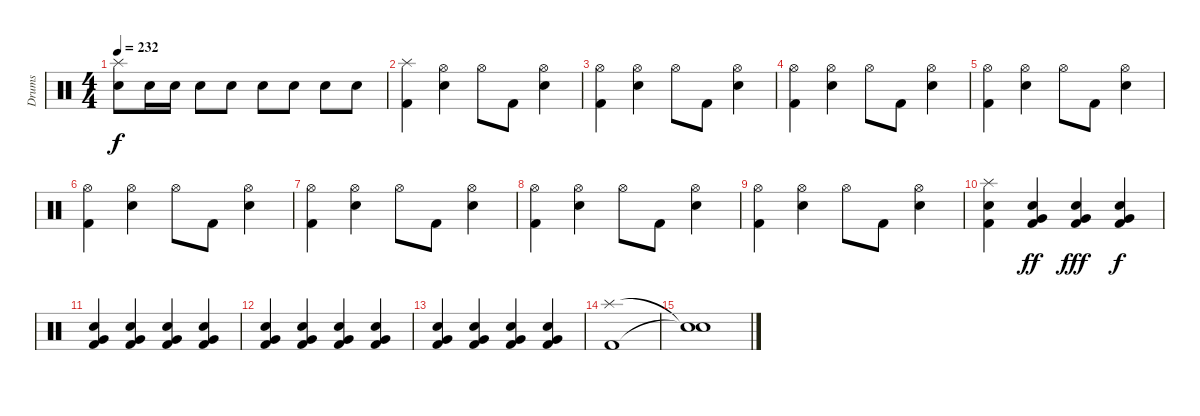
\track ("Drums" "Drums") {instrument percussion}
\staff {score}
\articulation defaults
\ts (4 4)
\tempo 232
\clef neutral
\ks c
("Splash (hit)" "Electric Snare (hit)").8{dy f} "Electric Snare (hit)".16 "Electric Snare (hit)".16 "Electric Snare (hit)".8 "Electric Snare (hit)".8 "Electric Snare (hit)".8 "Electric Snare (hit)".8 "Electric Snare (hit)".8 "Electric Snare (hit)".8 |
("Splash (hit)" "Kick (hit) 2").4 ("Hi-Hat (open)" "Electric Snare (hit)").4 "Hi-Hat (open)".8 "Kick (hit) 2".8 ("Hi-Hat (open)" "Electric Snare (hit)").4 |
("Hi-Hat (open)" "Kick (hit) 2").4 ("Hi-Hat (open)" "Electric Snare (hit)").4 "Hi-Hat (open)".8 "Kick (hit) 2".8 ("Hi-Hat (open)" "Electric Snare (hit)").4 |
("Hi-Hat (open)" "Kick (hit) 2").4 ("Hi-Hat (open)" "Electric Snare (hit)").4 "Hi-Hat (open)".8 "Kick (hit) 2".8 ("Hi-Hat (open)" "Electric Snare (hit)").4 |
("Hi-Hat (open)" "Kick (hit) 2").4 ("Hi-Hat (open)" "Electric Snare (hit)").4 "Hi-Hat (open)".8 "Kick (hit) 2".8 ("Hi-Hat (open)" "Electric Snare (hit)").4 |
("Hi-Hat (open)" "Kick (hit) 2").4 ("Hi-Hat (open)" "Electric Snare (hit)").4 "Hi-Hat (open)".8 "Kick (hit) 2".8 ("Hi-Hat (open)" "Electric Snare (hit)").4 |
("Hi-Hat (open)" "Kick (hit) 2").4 ("Hi-Hat (open)" "Electric Snare (hit)").4 "Hi-Hat (open)".8 "Kick (hit) 2".8 ("Hi-Hat (open)" "Electric Snare (hit)").4 |
("Hi-Hat (open)" "Kick (hit) 2").4 ("Hi-Hat (open)" "Electric Snare (hit)").4 "Hi-Hat (open)".8 "Kick (hit) 2".8 ("Hi-Hat (open)" "Electric Snare (hit)").4 |
("Hi-Hat (open)" "Kick (hit) 2").4 ("Hi-Hat (open)" "Electric Snare (hit)").4 "Hi-Hat (open)".8 "Kick (hit) 2".8 ("Hi-Hat (open)" "Electric Snare (hit)").4 |
("Splash (hit)" "Electric Snare (hit)" "Kick (hit) 2").4 ("Very Low Tom (hit)" "Electric Snare (hit)" "Kick (hit) 2").4{dy ff} ("Very Low Tom (hit)" "Electric Snare (hit)" "Kick (hit) 2").4{dy fff} ("Very Low Tom (hit)" "Electric Snare (hit)" "Kick (hit) 2").4{dy f} |
("Very Low Tom (hit)" "Electric Snare (hit)" "Kick (hit) 2").4 ("Very Low Tom (hit)" "Electric Snare (hit)" "Kick (hit) 2").4 ("Very Low Tom (hit)" "Electric Snare (hit)" "Kick (hit) 2").4 ("Very Low Tom (hit)" "Electric Snare (hit)" "Kick (hit) 2").4 |
("Very Low Tom (hit)" "Electric Snare (hit)" "Kick (hit) 2").4 ("Very Low Tom (hit)" "Electric Snare (hit)" "Kick (hit) 2").4 ("Very Low Tom (hit)" "Electric Snare (hit)" "Kick (hit) 2").4 ("Very Low Tom (hit)" "Electric Snare (hit)" "Kick (hit) 2").4 |
("Very Low Tom (hit)" "Electric Snare (hit)" "Kick (hit) 2").4 ("Very Low Tom (hit)" "Electric Snare (hit)" "Kick (hit) 2").4 ("Very Low Tom (hit)" "Electric Snare (hit)" "Kick (hit) 2").4 ("Very Low Tom (hit)" "Electric Snare (hit)" "Kick (hit) 2").4 |
("Splash (hit)" "Kick (hit) 2").1 |
("Snare (hit)"{t} "Snare (hit)"{t}).1
